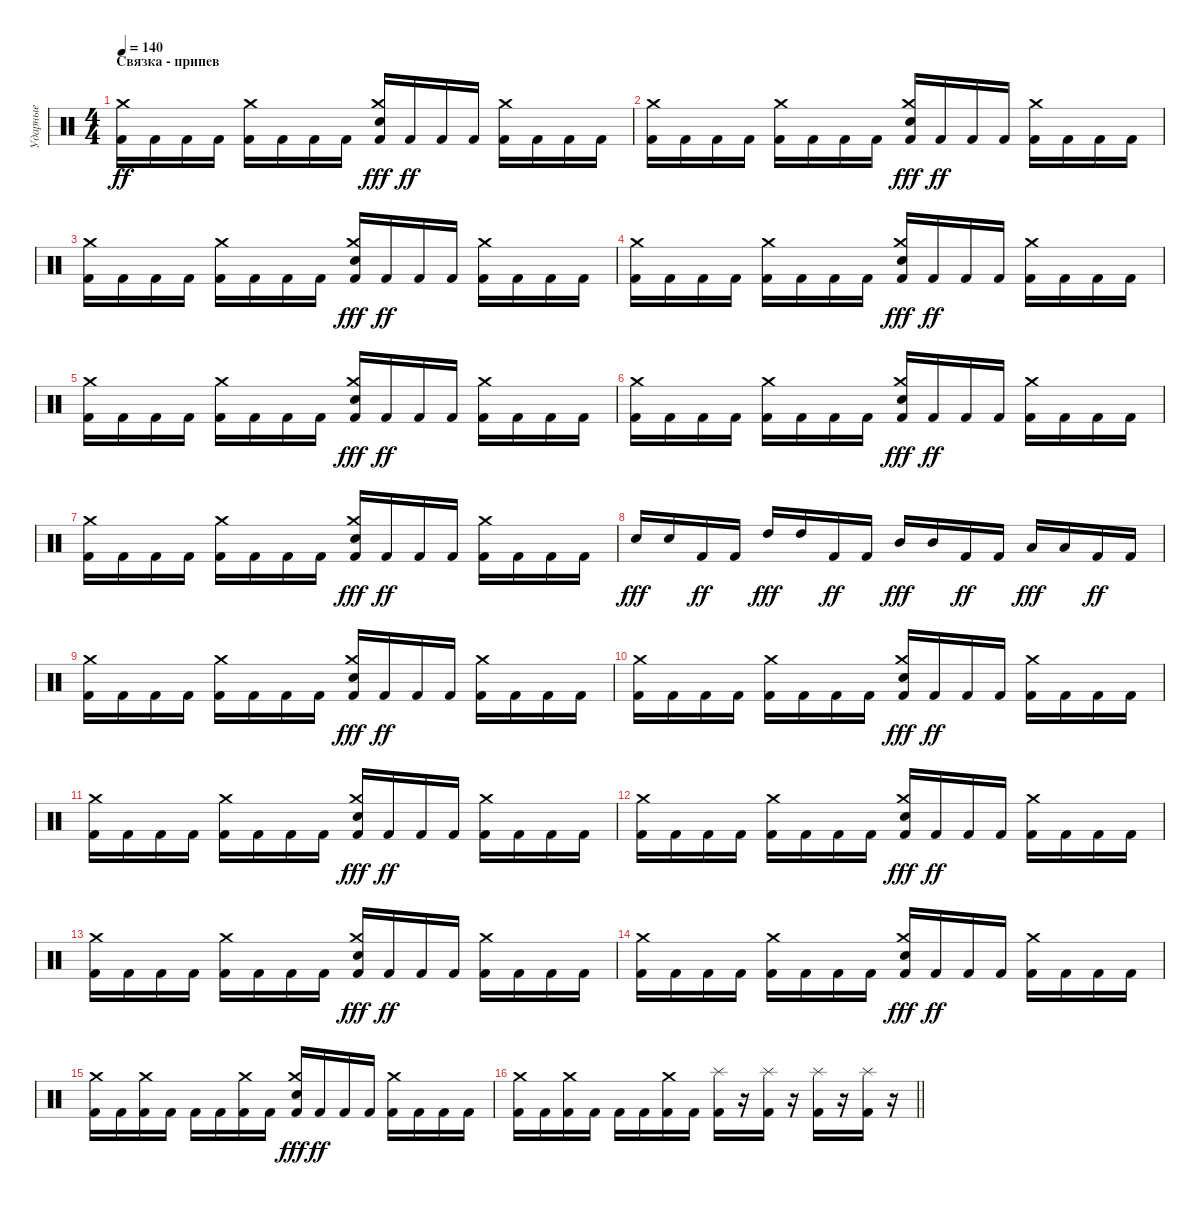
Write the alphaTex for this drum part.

\track ("Ударные" "Ударные") {instrument percussion}
\staff {score}
\articulation defaults
\ts (4 4)
\section ("" "Связка - припев")
\tempo 140
\clef neutral
\ks c
("Kick (hit) 2" "Crash medium (hit)").16{dy ff} "Kick (hit) 2".16 "Kick (hit) 2".16 "Kick (hit) 2".16 ("Kick (hit) 2" "Crash medium (hit)").16 "Kick (hit) 2".16 "Kick (hit) 2".16 "Kick (hit) 2".16 ("Kick (hit) 2" "Crash medium (hit)" "Electric Snare (hit)").16{dy fff} "Kick (hit) 2".16{dy ff} "Kick (hit) 2".16 "Kick (hit) 2".16 ("Kick (hit) 2" "Crash medium (hit)").16 "Kick (hit) 2".16 "Kick (hit) 2".16 "Kick (hit) 2".16 |
("Kick (hit) 2" "Crash medium (hit)").16 "Kick (hit) 2".16 "Kick (hit) 2".16 "Kick (hit) 2".16 ("Kick (hit) 2" "Crash medium (hit)").16 "Kick (hit) 2".16 "Kick (hit) 2".16 "Kick (hit) 2".16 ("Kick (hit) 2" "Crash medium (hit)" "Electric Snare (hit)").16{dy fff} "Kick (hit) 2".16{dy ff} "Kick (hit) 2".16 "Kick (hit) 2".16 ("Kick (hit) 2" "Crash medium (hit)").16 "Kick (hit) 2".16 "Kick (hit) 2".16 "Kick (hit) 2".16 |
("Kick (hit) 2" "Crash medium (hit)").16 "Kick (hit) 2".16 "Kick (hit) 2".16 "Kick (hit) 2".16 ("Kick (hit) 2" "Crash medium (hit)").16 "Kick (hit) 2".16 "Kick (hit) 2".16 "Kick (hit) 2".16 ("Kick (hit) 2" "Crash medium (hit)" "Electric Snare (hit)").16{dy fff} "Kick (hit) 2".16{dy ff} "Kick (hit) 2".16 "Kick (hit) 2".16 ("Kick (hit) 2" "Crash medium (hit)").16 "Kick (hit) 2".16 "Kick (hit) 2".16 "Kick (hit) 2".16 |
("Kick (hit) 2" "Crash medium (hit)").16 "Kick (hit) 2".16 "Kick (hit) 2".16 "Kick (hit) 2".16 ("Kick (hit) 2" "Crash medium (hit)").16 "Kick (hit) 2".16 "Kick (hit) 2".16 "Kick (hit) 2".16 ("Kick (hit) 2" "Crash medium (hit)" "Electric Snare (hit)").16{dy fff} "Kick (hit) 2".16{dy ff} "Kick (hit) 2".16 "Kick (hit) 2".16 ("Kick (hit) 2" "Crash medium (hit)").16 "Kick (hit) 2".16 "Kick (hit) 2".16 "Kick (hit) 2".16 |
("Kick (hit) 2" "Crash medium (hit)").16 "Kick (hit) 2".16 "Kick (hit) 2".16 "Kick (hit) 2".16 ("Kick (hit) 2" "Crash medium (hit)").16 "Kick (hit) 2".16 "Kick (hit) 2".16 "Kick (hit) 2".16 ("Kick (hit) 2" "Crash medium (hit)" "Electric Snare (hit)").16{dy fff} "Kick (hit) 2".16{dy ff} "Kick (hit) 2".16 "Kick (hit) 2".16 ("Kick (hit) 2" "Crash medium (hit)").16 "Kick (hit) 2".16 "Kick (hit) 2".16 "Kick (hit) 2".16 |
("Kick (hit) 2" "Crash medium (hit)").16 "Kick (hit) 2".16 "Kick (hit) 2".16 "Kick (hit) 2".16 ("Kick (hit) 2" "Crash medium (hit)").16 "Kick (hit) 2".16 "Kick (hit) 2".16 "Kick (hit) 2".16 ("Kick (hit) 2" "Crash medium (hit)" "Electric Snare (hit)").16{dy fff} "Kick (hit) 2".16{dy ff} "Kick (hit) 2".16 "Kick (hit) 2".16 ("Kick (hit) 2" "Crash medium (hit)").16 "Kick (hit) 2".16 "Kick (hit) 2".16 "Kick (hit) 2".16 |
("Kick (hit) 2" "Crash medium (hit)").16 "Kick (hit) 2".16 "Kick (hit) 2".16 "Kick (hit) 2".16 ("Kick (hit) 2" "Crash medium (hit)").16 "Kick (hit) 2".16 "Kick (hit) 2".16 "Kick (hit) 2".16 ("Kick (hit) 2" "Crash medium (hit)" "Electric Snare (hit)").16{dy fff} "Kick (hit) 2".16{dy ff} "Kick (hit) 2".16 "Kick (hit) 2".16 ("Kick (hit) 2" "Crash medium (hit)").16 "Kick (hit) 2".16 "Kick (hit) 2".16 "Kick (hit) 2".16 |
"Electric Snare (hit)".16{dy fff} "Electric Snare (hit)".16 "Kick (hit) 2".16{dy ff} "Kick (hit) 2".16 "High Tom (hit)".16{dy fff} "High Tom (hit)".16 "Kick (hit) 2".16{dy ff} "Kick (hit) 2".16 "Mid Tom (hit)".16{dy fff} "Mid Tom (hit)".16 "Kick (hit) 2".16{dy ff} "Kick (hit) 2".16 "Low Tom (hit)".16{dy fff} "Low Tom (hit)".16 "Kick (hit) 2".16{dy ff} "Kick (hit) 2".16 |
("Kick (hit) 2" "Crash medium (hit)").16 "Kick (hit) 2".16 "Kick (hit) 2".16 "Kick (hit) 2".16 ("Kick (hit) 2" "Crash medium (hit)").16 "Kick (hit) 2".16 "Kick (hit) 2".16 "Kick (hit) 2".16 ("Kick (hit) 2" "Crash medium (hit)" "Electric Snare (hit)").16{dy fff} "Kick (hit) 2".16{dy ff} "Kick (hit) 2".16 "Kick (hit) 2".16 ("Kick (hit) 2" "Crash medium (hit)").16 "Kick (hit) 2".16 "Kick (hit) 2".16 "Kick (hit) 2".16 |
("Kick (hit) 2" "Crash medium (hit)").16 "Kick (hit) 2".16 "Kick (hit) 2".16 "Kick (hit) 2".16 ("Kick (hit) 2" "Crash medium (hit)").16 "Kick (hit) 2".16 "Kick (hit) 2".16 "Kick (hit) 2".16 ("Kick (hit) 2" "Crash medium (hit)" "Electric Snare (hit)").16{dy fff} "Kick (hit) 2".16{dy ff} "Kick (hit) 2".16 "Kick (hit) 2".16 ("Kick (hit) 2" "Crash medium (hit)").16 "Kick (hit) 2".16 "Kick (hit) 2".16 "Kick (hit) 2".16 |
("Kick (hit) 2" "Crash medium (hit)").16 "Kick (hit) 2".16 "Kick (hit) 2".16 "Kick (hit) 2".16 ("Kick (hit) 2" "Crash medium (hit)").16 "Kick (hit) 2".16 "Kick (hit) 2".16 "Kick (hit) 2".16 ("Kick (hit) 2" "Crash medium (hit)" "Electric Snare (hit)").16{dy fff} "Kick (hit) 2".16{dy ff} "Kick (hit) 2".16 "Kick (hit) 2".16 ("Kick (hit) 2" "Crash medium (hit)").16 "Kick (hit) 2".16 "Kick (hit) 2".16 "Kick (hit) 2".16 |
("Kick (hit) 2" "Crash medium (hit)").16 "Kick (hit) 2".16 "Kick (hit) 2".16 "Kick (hit) 2".16 ("Kick (hit) 2" "Crash medium (hit)").16 "Kick (hit) 2".16 "Kick (hit) 2".16 "Kick (hit) 2".16 ("Kick (hit) 2" "Crash medium (hit)" "Electric Snare (hit)").16{dy fff} "Kick (hit) 2".16{dy ff} "Kick (hit) 2".16 "Kick (hit) 2".16 ("Kick (hit) 2" "Crash medium (hit)").16 "Kick (hit) 2".16 "Kick (hit) 2".16 "Kick (hit) 2".16 |
("Kick (hit) 2" "Crash medium (hit)").16 "Kick (hit) 2".16 "Kick (hit) 2".16 "Kick (hit) 2".16 ("Kick (hit) 2" "Crash medium (hit)").16 "Kick (hit) 2".16 "Kick (hit) 2".16 "Kick (hit) 2".16 ("Kick (hit) 2" "Crash medium (hit)" "Electric Snare (hit)").16{dy fff} "Kick (hit) 2".16{dy ff} "Kick (hit) 2".16 "Kick (hit) 2".16 ("Kick (hit) 2" "Crash medium (hit)").16 "Kick (hit) 2".16 "Kick (hit) 2".16 "Kick (hit) 2".16 |
("Kick (hit) 2" "Crash medium (hit)").16 "Kick (hit) 2".16 "Kick (hit) 2".16 "Kick (hit) 2".16 ("Kick (hit) 2" "Crash medium (hit)").16 "Kick (hit) 2".16 "Kick (hit) 2".16 "Kick (hit) 2".16 ("Kick (hit) 2" "Crash medium (hit)" "Electric Snare (hit)").16{dy fff} "Kick (hit) 2".16{dy ff} "Kick (hit) 2".16 "Kick (hit) 2".16 ("Kick (hit) 2" "Crash medium (hit)").16 "Kick (hit) 2".16 "Kick (hit) 2".16 "Kick (hit) 2".16 |
("Kick (hit) 2" "Crash medium (hit)").16 "Kick (hit) 2".16 ("Kick (hit) 2" "Crash medium (hit)").16 "Kick (hit) 2".16 "Kick (hit) 2".16 "Kick (hit) 2".16 ("Kick (hit) 2" "Crash medium (hit)").16 "Kick (hit) 2".16 ("Kick (hit) 2" "Crash medium (hit)" "Electric Snare (hit)").16{dy fff} "Kick (hit) 2".16{dy ff} "Kick (hit) 2".16 "Kick (hit) 2".16 ("Kick (hit) 2" "Crash medium (hit)").16 "Kick (hit) 2".16 "Kick (hit) 2".16 "Kick (hit) 2".16 |
\barLineRight lightlight
("Kick (hit) 2" "Crash medium (hit)").16 "Kick (hit) 2".16 ("Kick (hit) 2" "Crash medium (hit)").16 "Kick (hit) 2".16 "Kick (hit) 2".16 "Kick (hit) 2".16 ("Kick (hit) 2" "Crash medium (hit)").16 "Kick (hit) 2".16 ("Kick (hit) 2" "Splash (hit)").16 r.16 ("Kick (hit) 2" "Splash (hit)").16 r.16 ("Kick (hit) 2" "Splash (hit)").16 r.16 ("Kick (hit) 2" "Splash (hit)").16 r.16
